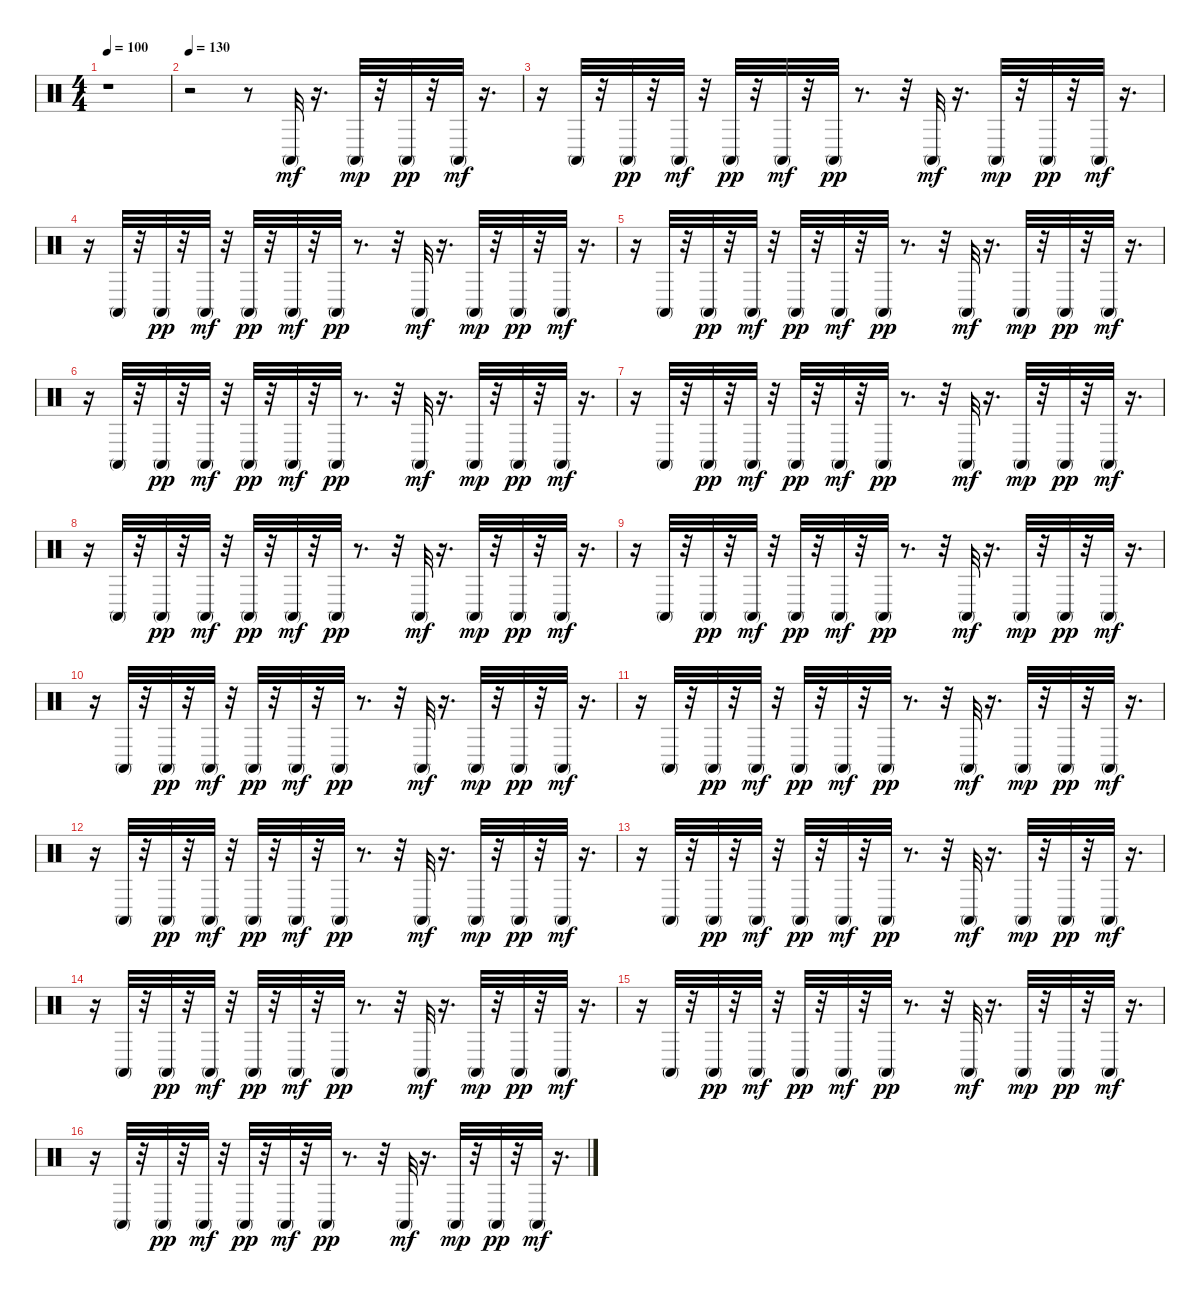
\track "" {instrument percussion}
\staff {score}
\articulation defaults
\ts (4 4)
\tempo 100
\clef neutral
\ks c
r.1{dy mf} |
\tempo 130
r.2 r.8 "Conga high (mute)".32 r.16{d} "Conga high (mute)".32{dy mp} r.32 "Conga high (mute)".32{dy pp} r.32 "Conga high (mute)".32{dy mf} r.16{d} |
r.16 "Conga high (mute)".32 r.32 "Conga high (mute)".32{dy pp} r.32 "Conga high (mute)".32{dy mf} r.32 "Conga high (mute)".32{dy pp} r.32 "Conga high (mute)".32{dy mf} r.32 "Conga high (mute)".32{dy pp} r.8{d} r.32 "Conga high (mute)".32{dy mf} r.16{d} "Conga high (mute)".32{dy mp} r.32 "Conga high (mute)".32{dy pp} r.32 "Conga high (mute)".32{dy mf} r.16{d} |
r.16 "Conga high (mute)".32 r.32 "Conga high (mute)".32{dy pp} r.32 "Conga high (mute)".32{dy mf} r.32 "Conga high (mute)".32{dy pp} r.32 "Conga high (mute)".32{dy mf} r.32 "Conga high (mute)".32{dy pp} r.8{d} r.32 "Conga high (mute)".32{dy mf} r.16{d} "Conga high (mute)".32{dy mp} r.32 "Conga high (mute)".32{dy pp} r.32 "Conga high (mute)".32{dy mf} r.16{d} |
r.16 "Conga high (mute)".32 r.32 "Conga high (mute)".32{dy pp} r.32 "Conga high (mute)".32{dy mf} r.32 "Conga high (mute)".32{dy pp} r.32 "Conga high (mute)".32{dy mf} r.32 "Conga high (mute)".32{dy pp} r.8{d} r.32 "Conga high (mute)".32{dy mf} r.16{d} "Conga high (mute)".32{dy mp} r.32 "Conga high (mute)".32{dy pp} r.32 "Conga high (mute)".32{dy mf} r.16{d} |
r.16 "Conga high (mute)".32 r.32 "Conga high (mute)".32{dy pp} r.32 "Conga high (mute)".32{dy mf} r.32 "Conga high (mute)".32{dy pp} r.32 "Conga high (mute)".32{dy mf} r.32 "Conga high (mute)".32{dy pp} r.8{d} r.32 "Conga high (mute)".32{dy mf} r.16{d} "Conga high (mute)".32{dy mp} r.32 "Conga high (mute)".32{dy pp} r.32 "Conga high (mute)".32{dy mf} r.16{d} |
r.16 "Conga high (mute)".32 r.32 "Conga high (mute)".32{dy pp} r.32 "Conga high (mute)".32{dy mf} r.32 "Conga high (mute)".32{dy pp} r.32 "Conga high (mute)".32{dy mf} r.32 "Conga high (mute)".32{dy pp} r.8{d} r.32 "Conga high (mute)".32{dy mf} r.16{d} "Conga high (mute)".32{dy mp} r.32 "Conga high (mute)".32{dy pp} r.32 "Conga high (mute)".32{dy mf} r.16{d} |
r.16 "Conga high (mute)".32 r.32 "Conga high (mute)".32{dy pp} r.32 "Conga high (mute)".32{dy mf} r.32 "Conga high (mute)".32{dy pp} r.32 "Conga high (mute)".32{dy mf} r.32 "Conga high (mute)".32{dy pp} r.8{d} r.32 "Conga high (mute)".32{dy mf} r.16{d} "Conga high (mute)".32{dy mp} r.32 "Conga high (mute)".32{dy pp} r.32 "Conga high (mute)".32{dy mf} r.16{d} |
r.16 "Conga high (mute)".32 r.32 "Conga high (mute)".32{dy pp} r.32 "Conga high (mute)".32{dy mf} r.32 "Conga high (mute)".32{dy pp} r.32 "Conga high (mute)".32{dy mf} r.32 "Conga high (mute)".32{dy pp} r.8{d} r.32 "Conga high (mute)".32{dy mf} r.16{d} "Conga high (mute)".32{dy mp} r.32 "Conga high (mute)".32{dy pp} r.32 "Conga high (mute)".32{dy mf} r.16{d} |
r.16 "Conga high (mute)".32 r.32 "Conga high (mute)".32{dy pp} r.32 "Conga high (mute)".32{dy mf} r.32 "Conga high (mute)".32{dy pp} r.32 "Conga high (mute)".32{dy mf} r.32 "Conga high (mute)".32{dy pp} r.8{d} r.32 "Conga high (mute)".32{dy mf} r.16{d} "Conga high (mute)".32{dy mp} r.32 "Conga high (mute)".32{dy pp} r.32 "Conga high (mute)".32{dy mf} r.16{d} |
r.16 "Conga high (mute)".32 r.32 "Conga high (mute)".32{dy pp} r.32 "Conga high (mute)".32{dy mf} r.32 "Conga high (mute)".32{dy pp} r.32 "Conga high (mute)".32{dy mf} r.32 "Conga high (mute)".32{dy pp} r.8{d} r.32 "Conga high (mute)".32{dy mf} r.16{d} "Conga high (mute)".32{dy mp} r.32 "Conga high (mute)".32{dy pp} r.32 "Conga high (mute)".32{dy mf} r.16{d} |
r.16 "Conga high (mute)".32 r.32 "Conga high (mute)".32{dy pp} r.32 "Conga high (mute)".32{dy mf} r.32 "Conga high (mute)".32{dy pp} r.32 "Conga high (mute)".32{dy mf} r.32 "Conga high (mute)".32{dy pp} r.8{d} r.32 "Conga high (mute)".32{dy mf} r.16{d} "Conga high (mute)".32{dy mp} r.32 "Conga high (mute)".32{dy pp} r.32 "Conga high (mute)".32{dy mf} r.16{d} |
r.16 "Conga high (mute)".32 r.32 "Conga high (mute)".32{dy pp} r.32 "Conga high (mute)".32{dy mf} r.32 "Conga high (mute)".32{dy pp} r.32 "Conga high (mute)".32{dy mf} r.32 "Conga high (mute)".32{dy pp} r.8{d} r.32 "Conga high (mute)".32{dy mf} r.16{d} "Conga high (mute)".32{dy mp} r.32 "Conga high (mute)".32{dy pp} r.32 "Conga high (mute)".32{dy mf} r.16{d} |
r.16 "Conga high (mute)".32 r.32 "Conga high (mute)".32{dy pp} r.32 "Conga high (mute)".32{dy mf} r.32 "Conga high (mute)".32{dy pp} r.32 "Conga high (mute)".32{dy mf} r.32 "Conga high (mute)".32{dy pp} r.8{d} r.32 "Conga high (mute)".32{dy mf} r.16{d} "Conga high (mute)".32{dy mp} r.32 "Conga high (mute)".32{dy pp} r.32 "Conga high (mute)".32{dy mf} r.16{d} |
r.16 "Conga high (mute)".32 r.32 "Conga high (mute)".32{dy pp} r.32 "Conga high (mute)".32{dy mf} r.32 "Conga high (mute)".32{dy pp} r.32 "Conga high (mute)".32{dy mf} r.32 "Conga high (mute)".32{dy pp} r.8{d} r.32 "Conga high (mute)".32{dy mf} r.16{d} "Conga high (mute)".32{dy mp} r.32 "Conga high (mute)".32{dy pp} r.32 "Conga high (mute)".32{dy mf} r.16{d} |
r.16 "Conga high (mute)".32 r.32 "Conga high (mute)".32{dy pp} r.32 "Conga high (mute)".32{dy mf} r.32 "Conga high (mute)".32{dy pp} r.32 "Conga high (mute)".32{dy mf} r.32 "Conga high (mute)".32{dy pp} r.8{d} r.32 "Conga high (mute)".32{dy mf} r.16{d} "Conga high (mute)".32{dy mp} r.32 "Conga high (mute)".32{dy pp} r.32 "Conga high (mute)".32{dy mf} r.16{d}
